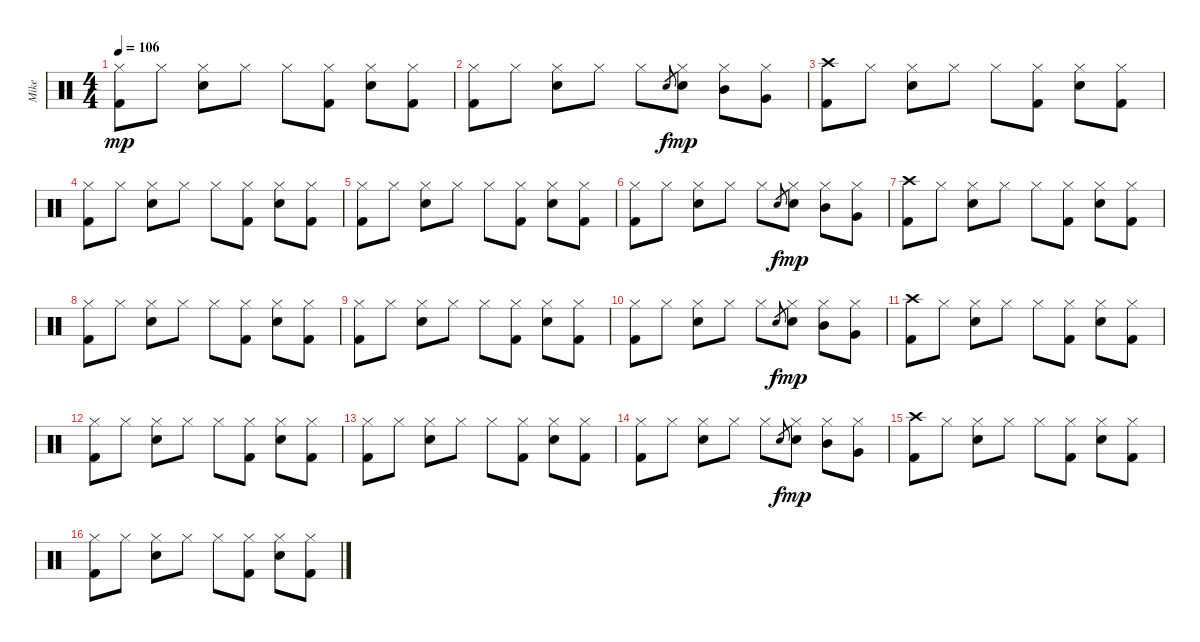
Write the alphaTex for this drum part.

\track ("Mike" "Mike") {instrument percussion}
\staff {score}
\articulation defaults
\ts (4 4)
\tempo 106
\clef neutral
\ks c
("Hi-Hat (closed)" "Kick (hit) 2").8{dy mp} "Hi-Hat (closed)".8 ("Hi-Hat (closed)" "Electric Snare (hit)").8 "Hi-Hat (closed)".8 "Hi-Hat (closed)".8 ("Hi-Hat (closed)" "Kick (hit) 2").8 ("Hi-Hat (closed)" "Electric Snare (hit)").8 ("Hi-Hat (closed)" "Kick (hit) 2").8 |
("Hi-Hat (closed)" "Kick (hit) 2").8 "Hi-Hat (closed)".8 ("Hi-Hat (closed)" "Electric Snare (hit)").8 "Hi-Hat (closed)".8 "Hi-Hat (closed)".8 "Electric Snare (hit)".8{gr dy f} ("Hi-Hat (closed)" "Electric Snare (hit)").8{dy mp} ("Hi-Hat (closed)" "Mid Tom (hit)").8 ("Hi-Hat (closed)" "Very Low Tom (hit)").8 |
("Crash high (hit)" "Kick (hit) 2").8 "Hi-Hat (closed)".8 ("Hi-Hat (closed)" "Electric Snare (hit)").8 "Hi-Hat (closed)".8 "Hi-Hat (closed)".8 ("Hi-Hat (closed)" "Kick (hit) 2").8 ("Hi-Hat (closed)" "Electric Snare (hit)").8 ("Hi-Hat (closed)" "Kick (hit) 2").8 |
("Hi-Hat (closed)" "Kick (hit) 2").8 "Hi-Hat (closed)".8 ("Hi-Hat (closed)" "Electric Snare (hit)").8 "Hi-Hat (closed)".8 "Hi-Hat (closed)".8 ("Hi-Hat (closed)" "Kick (hit) 2").8 ("Hi-Hat (closed)" "Electric Snare (hit)").8 ("Hi-Hat (closed)" "Kick (hit) 2").8 |
("Hi-Hat (closed)" "Kick (hit) 2").8 "Hi-Hat (closed)".8 ("Hi-Hat (closed)" "Electric Snare (hit)").8 "Hi-Hat (closed)".8 "Hi-Hat (closed)".8 ("Hi-Hat (closed)" "Kick (hit) 2").8 ("Hi-Hat (closed)" "Electric Snare (hit)").8 ("Hi-Hat (closed)" "Kick (hit) 2").8 |
("Hi-Hat (closed)" "Kick (hit) 2").8 "Hi-Hat (closed)".8 ("Hi-Hat (closed)" "Electric Snare (hit)").8 "Hi-Hat (closed)".8 "Hi-Hat (closed)".8 "Electric Snare (hit)".8{gr dy f} ("Hi-Hat (closed)" "Electric Snare (hit)").8{dy mp} ("Hi-Hat (closed)" "Mid Tom (hit)").8 ("Hi-Hat (closed)" "Very Low Tom (hit)").8 |
("Crash high (hit)" "Kick (hit) 2").8 "Hi-Hat (closed)".8 ("Hi-Hat (closed)" "Electric Snare (hit)").8 "Hi-Hat (closed)".8 "Hi-Hat (closed)".8 ("Hi-Hat (closed)" "Kick (hit) 2").8 ("Hi-Hat (closed)" "Electric Snare (hit)").8 ("Hi-Hat (closed)" "Kick (hit) 2").8 |
("Hi-Hat (closed)" "Kick (hit) 2").8 "Hi-Hat (closed)".8 ("Hi-Hat (closed)" "Electric Snare (hit)").8 "Hi-Hat (closed)".8 "Hi-Hat (closed)".8 ("Hi-Hat (closed)" "Kick (hit) 2").8 ("Hi-Hat (closed)" "Electric Snare (hit)").8 ("Hi-Hat (closed)" "Kick (hit) 2").8 |
("Hi-Hat (closed)" "Kick (hit) 2").8 "Hi-Hat (closed)".8 ("Hi-Hat (closed)" "Electric Snare (hit)").8 "Hi-Hat (closed)".8 "Hi-Hat (closed)".8 ("Hi-Hat (closed)" "Kick (hit) 2").8 ("Hi-Hat (closed)" "Electric Snare (hit)").8 ("Hi-Hat (closed)" "Kick (hit) 2").8 |
("Hi-Hat (closed)" "Kick (hit) 2").8 "Hi-Hat (closed)".8 ("Hi-Hat (closed)" "Electric Snare (hit)").8 "Hi-Hat (closed)".8 "Hi-Hat (closed)".8 "Electric Snare (hit)".8{gr dy f} ("Hi-Hat (closed)" "Electric Snare (hit)").8{dy mp} ("Hi-Hat (closed)" "Mid Tom (hit)").8 ("Hi-Hat (closed)" "Very Low Tom (hit)").8 |
("Crash high (hit)" "Kick (hit) 2").8 "Hi-Hat (closed)".8 ("Hi-Hat (closed)" "Electric Snare (hit)").8 "Hi-Hat (closed)".8 "Hi-Hat (closed)".8 ("Hi-Hat (closed)" "Kick (hit) 2").8 ("Hi-Hat (closed)" "Electric Snare (hit)").8 ("Hi-Hat (closed)" "Kick (hit) 2").8 |
("Hi-Hat (closed)" "Kick (hit) 2").8 "Hi-Hat (closed)".8 ("Hi-Hat (closed)" "Electric Snare (hit)").8 "Hi-Hat (closed)".8 "Hi-Hat (closed)".8 ("Hi-Hat (closed)" "Kick (hit) 2").8 ("Hi-Hat (closed)" "Electric Snare (hit)").8 ("Hi-Hat (closed)" "Kick (hit) 2").8 |
("Hi-Hat (closed)" "Kick (hit) 2").8 "Hi-Hat (closed)".8 ("Hi-Hat (closed)" "Electric Snare (hit)").8 "Hi-Hat (closed)".8 "Hi-Hat (closed)".8 ("Hi-Hat (closed)" "Kick (hit) 2").8 ("Hi-Hat (closed)" "Electric Snare (hit)").8 ("Hi-Hat (closed)" "Kick (hit) 2").8 |
("Hi-Hat (closed)" "Kick (hit) 2").8 "Hi-Hat (closed)".8 ("Hi-Hat (closed)" "Electric Snare (hit)").8 "Hi-Hat (closed)".8 "Hi-Hat (closed)".8 "Electric Snare (hit)".8{gr dy f} ("Hi-Hat (closed)" "Electric Snare (hit)").8{dy mp} ("Hi-Hat (closed)" "Mid Tom (hit)").8 ("Hi-Hat (closed)" "Very Low Tom (hit)").8 |
("Crash high (hit)" "Kick (hit) 2").8 "Hi-Hat (closed)".8 ("Hi-Hat (closed)" "Electric Snare (hit)").8 "Hi-Hat (closed)".8 "Hi-Hat (closed)".8 ("Hi-Hat (closed)" "Kick (hit) 2").8 ("Hi-Hat (closed)" "Electric Snare (hit)").8 ("Hi-Hat (closed)" "Kick (hit) 2").8 |
("Hi-Hat (closed)" "Kick (hit) 2").8 "Hi-Hat (closed)".8 ("Hi-Hat (closed)" "Electric Snare (hit)").8 "Hi-Hat (closed)".8 "Hi-Hat (closed)".8 ("Hi-Hat (closed)" "Kick (hit) 2").8 ("Hi-Hat (closed)" "Electric Snare (hit)").8 ("Hi-Hat (closed)" "Kick (hit) 2").8
